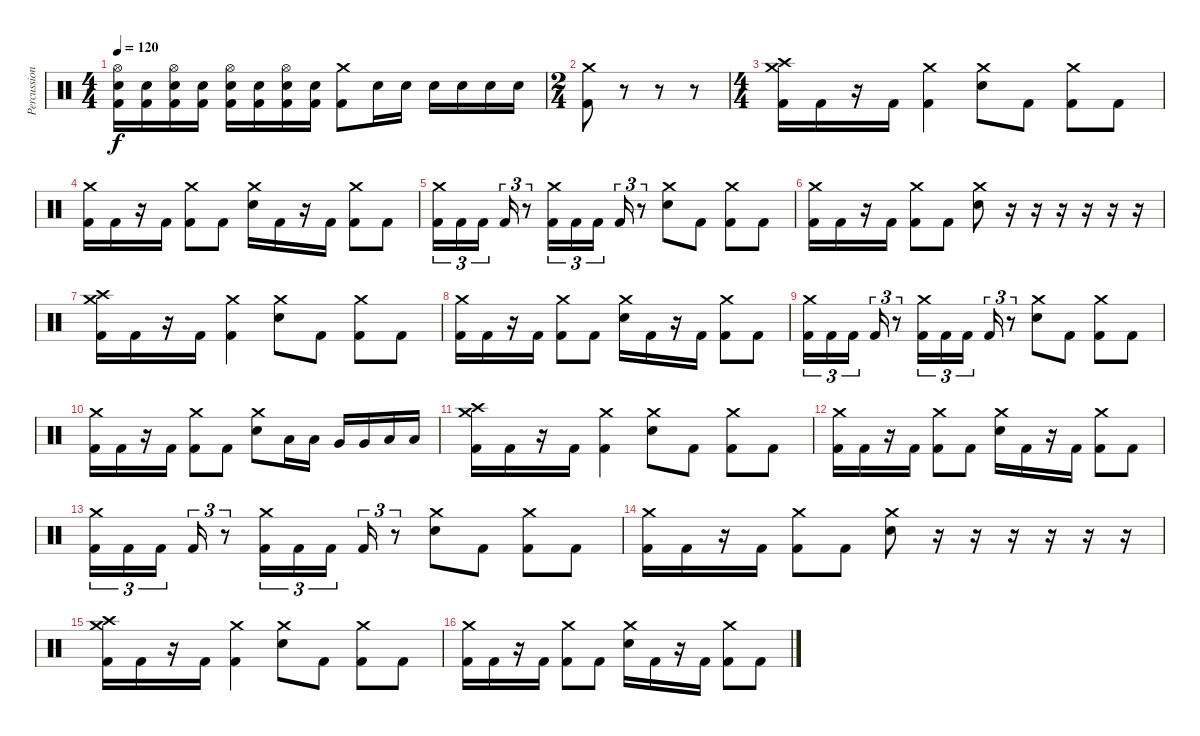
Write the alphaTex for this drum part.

\track ("Percussion" "Percussion") {instrument percussion}
\staff {score}
\articulation defaults
\ts (4 4)
\tempo 120
\clef neutral
\ks c
("Hi-Hat (open)" "Electric Snare (hit)" "Kick (hit) 2").16{dy f} ("Electric Snare (hit)" "Kick (hit) 2").16 ("Hi-Hat (open)" "Electric Snare (hit)" "Kick (hit) 2").16 ("Electric Snare (hit)" "Kick (hit) 2").16 ("Hi-Hat (open)" "Electric Snare (hit)" "Kick (hit) 2").16 ("Electric Snare (hit)" "Kick (hit) 2").16 ("Hi-Hat (open)" "Electric Snare (hit)" "Kick (hit) 2").16 ("Electric Snare (hit)" "Kick (hit) 2").16 ("Crash medium (hit)" "Kick (hit) 2").8 "Electric Snare (hit)".16 "Electric Snare (hit)".16 "Electric Snare (hit)".16 "Electric Snare (hit)".16 "Electric Snare (hit)".16 "Electric Snare (hit)".16 |
\ts (2 4)
("Crash medium (hit)" "Kick (hit) 2").8 r.8{volume 0} r.8 r.8 |
\ts (4 4)
("Crash high (hit)" "Crash medium (hit)" "Kick (hit) 2").16{volume 16} "Kick (hit) 2".16 r.16 "Kick (hit) 2".16 ("Crash medium (hit)" "Kick (hit) 2").4 ("Crash medium (hit)" "Electric Snare (hit)").8 "Kick (hit) 2".8 ("Crash medium (hit)" "Kick (hit) 2").8 "Kick (hit) 2".8 |
("Crash medium (hit)" "Kick (hit) 2").16 "Kick (hit) 2".16 r.16 "Kick (hit) 2".16 ("Crash medium (hit)" "Kick (hit) 2").8 "Kick (hit) 2".8 ("Crash medium (hit)" "Electric Snare (hit)").16 "Kick (hit) 2".16 r.16 "Kick (hit) 2".16 ("Crash medium (hit)" "Kick (hit) 2").8 "Kick (hit) 2".8 |
("Crash medium (hit)" "Kick (hit) 2").16{tu (3 2)} "Kick (hit) 2".16{tu (3 2)} "Kick (hit) 2".16{tu (3 2) beam splitsecondary} "Kick (hit) 2".16{tu (3 2)} r.8{tu (3 2)} ("Crash medium (hit)" "Kick (hit) 2").16{tu (3 2)} "Kick (hit) 2".16{tu (3 2)} "Kick (hit) 2".16{tu (3 2) beam splitsecondary} "Kick (hit) 2".16{tu (3 2)} r.8{tu (3 2)} ("Crash medium (hit)" "Electric Snare (hit)").8 "Kick (hit) 2".8 ("Crash medium (hit)" "Kick (hit) 2").8 "Kick (hit) 2".8 |
("Crash medium (hit)" "Kick (hit) 2").16 "Kick (hit) 2".16 r.16 "Kick (hit) 2".16 ("Crash medium (hit)" "Kick (hit) 2").8 "Kick (hit) 2".8 ("Crash medium (hit)" "Electric Snare (hit)").8 r.16 r.16 r.16 r.16 r.16 r.16 |
("Crash high (hit)" "Crash medium (hit)" "Kick (hit) 2").16{volume 16} "Kick (hit) 2".16 r.16 "Kick (hit) 2".16 ("Crash medium (hit)" "Kick (hit) 2").4 ("Crash medium (hit)" "Electric Snare (hit)").8 "Kick (hit) 2".8 ("Crash medium (hit)" "Kick (hit) 2").8 "Kick (hit) 2".8 |
("Crash medium (hit)" "Kick (hit) 2").16 "Kick (hit) 2".16 r.16 "Kick (hit) 2".16 ("Crash medium (hit)" "Kick (hit) 2").8 "Kick (hit) 2".8 ("Crash medium (hit)" "Electric Snare (hit)").16 "Kick (hit) 2".16 r.16 "Kick (hit) 2".16 ("Crash medium (hit)" "Kick (hit) 2").8 "Kick (hit) 2".8 |
("Crash medium (hit)" "Kick (hit) 2").16{tu (3 2)} "Kick (hit) 2".16{tu (3 2)} "Kick (hit) 2".16{tu (3 2) beam splitsecondary} "Kick (hit) 2".16{tu (3 2)} r.8{tu (3 2)} ("Crash medium (hit)" "Kick (hit) 2").16{tu (3 2)} "Kick (hit) 2".16{tu (3 2)} "Kick (hit) 2".16{tu (3 2) beam splitsecondary} "Kick (hit) 2".16{tu (3 2)} r.8{tu (3 2)} ("Crash medium (hit)" "Electric Snare (hit)").8 "Kick (hit) 2".8 ("Crash medium (hit)" "Kick (hit) 2").8 "Kick (hit) 2".8 |
("Crash medium (hit)" "Kick (hit) 2").16 "Kick (hit) 2".16 r.16 "Kick (hit) 2".16 ("Crash medium (hit)" "Kick (hit) 2").8 "Kick (hit) 2".8 ("Crash medium (hit)" "Electric Snare (hit)").8 "Low Tom (hit)".16 "Low Tom (hit)".16 "Very Low Tom (hit)".16 "Very Low Tom (hit)".16 "Low Floor Tom (hit)".16 "Low Floor Tom (hit)".16 |
("Crash high (hit)" "Crash medium (hit)" "Kick (hit) 2").16{volume 16} "Kick (hit) 2".16 r.16 "Kick (hit) 2".16 ("Crash medium (hit)" "Kick (hit) 2").4 ("Crash medium (hit)" "Electric Snare (hit)").8 "Kick (hit) 2".8 ("Crash medium (hit)" "Kick (hit) 2").8 "Kick (hit) 2".8 |
("Crash medium (hit)" "Kick (hit) 2").16 "Kick (hit) 2".16 r.16 "Kick (hit) 2".16 ("Crash medium (hit)" "Kick (hit) 2").8 "Kick (hit) 2".8 ("Crash medium (hit)" "Electric Snare (hit)").16 "Kick (hit) 2".16 r.16 "Kick (hit) 2".16 ("Crash medium (hit)" "Kick (hit) 2").8 "Kick (hit) 2".8 |
("Crash medium (hit)" "Kick (hit) 2").16{tu (3 2)} "Kick (hit) 2".16{tu (3 2)} "Kick (hit) 2".16{tu (3 2) beam splitsecondary} "Kick (hit) 2".16{tu (3 2)} r.8{tu (3 2)} ("Crash medium (hit)" "Kick (hit) 2").16{tu (3 2)} "Kick (hit) 2".16{tu (3 2)} "Kick (hit) 2".16{tu (3 2) beam splitsecondary} "Kick (hit) 2".16{tu (3 2)} r.8{tu (3 2)} ("Crash medium (hit)" "Electric Snare (hit)").8 "Kick (hit) 2".8 ("Crash medium (hit)" "Kick (hit) 2").8 "Kick (hit) 2".8 |
("Crash medium (hit)" "Kick (hit) 2").16 "Kick (hit) 2".16 r.16 "Kick (hit) 2".16 ("Crash medium (hit)" "Kick (hit) 2").8 "Kick (hit) 2".8 ("Crash medium (hit)" "Electric Snare (hit)").8 r.16 r.16 r.16 r.16 r.16 r.16 |
("Crash high (hit)" "Crash medium (hit)" "Kick (hit) 2").16{volume 16} "Kick (hit) 2".16 r.16 "Kick (hit) 2".16 ("Crash medium (hit)" "Kick (hit) 2").4 ("Crash medium (hit)" "Electric Snare (hit)").8 "Kick (hit) 2".8 ("Crash medium (hit)" "Kick (hit) 2").8 "Kick (hit) 2".8 |
("Crash medium (hit)" "Kick (hit) 2").16 "Kick (hit) 2".16 r.16 "Kick (hit) 2".16 ("Crash medium (hit)" "Kick (hit) 2").8 "Kick (hit) 2".8 ("Crash medium (hit)" "Electric Snare (hit)").16 "Kick (hit) 2".16 r.16 "Kick (hit) 2".16 ("Crash medium (hit)" "Kick (hit) 2").8 "Kick (hit) 2".8
